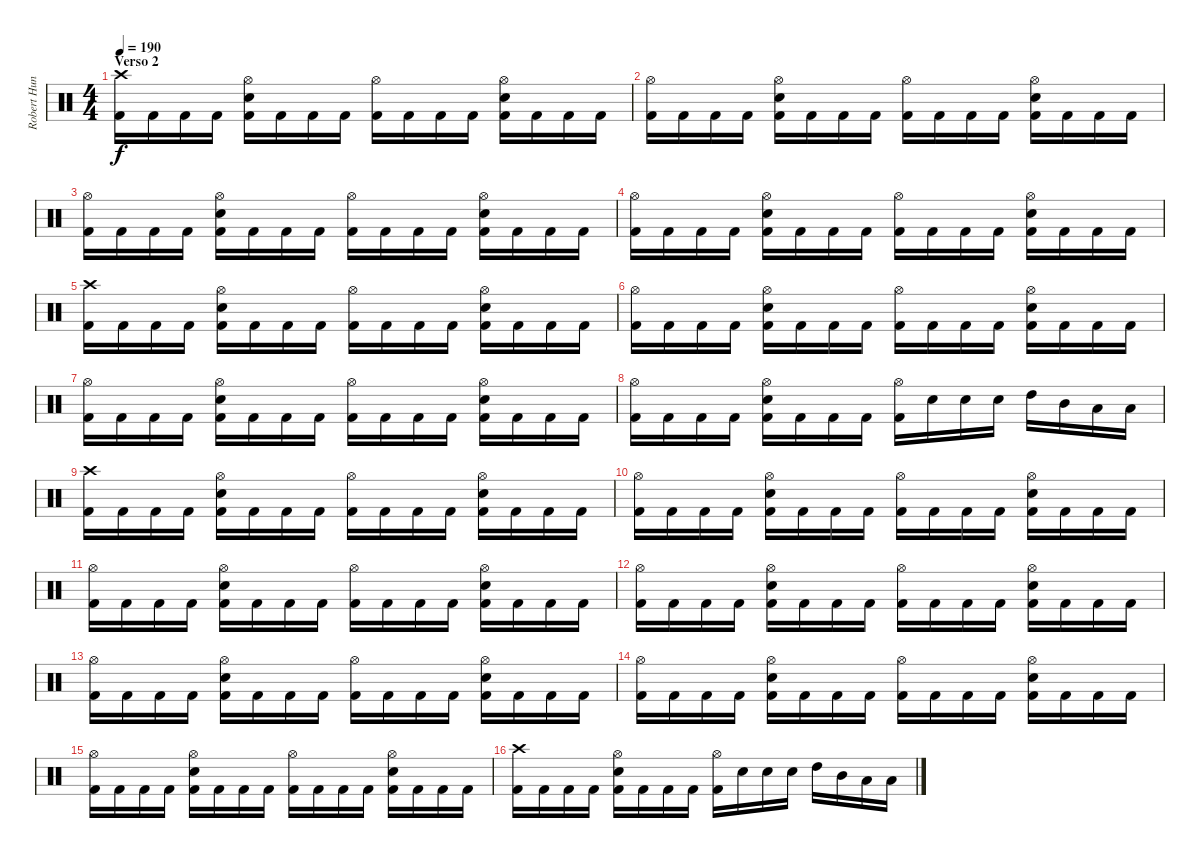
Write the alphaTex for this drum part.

\track ("Robert Hunecke" "Robert Hun") {instrument percussion}
\staff {score}
\articulation defaults
\ts (4 4)
\section ("" "Verso 2")
\tempo 190
\clef neutral
\ks c
("Kick (hit) 2" "Crash high (hit)").16{dy f} "Kick (hit) 2".16 "Kick (hit) 2".16 "Kick (hit) 2".16 ("Kick (hit) 2" "Electric Snare (hit)" "Hi-Hat (open)").16 "Kick (hit) 2".16 "Kick (hit) 2".16 "Kick (hit) 2".16 ("Kick (hit) 2" "Hi-Hat (open)").16 "Kick (hit) 2".16 "Kick (hit) 2".16 "Kick (hit) 2".16 ("Kick (hit) 2" "Electric Snare (hit)" "Hi-Hat (open)").16 "Kick (hit) 2".16 "Kick (hit) 2".16 "Kick (hit) 2".16 |
("Kick (hit) 2" "Hi-Hat (open)").16 "Kick (hit) 2".16 "Kick (hit) 2".16 "Kick (hit) 2".16 ("Kick (hit) 2" "Electric Snare (hit)" "Hi-Hat (open)").16 "Kick (hit) 2".16 "Kick (hit) 2".16 "Kick (hit) 2".16 ("Kick (hit) 2" "Hi-Hat (open)").16 "Kick (hit) 2".16 "Kick (hit) 2".16 "Kick (hit) 2".16 ("Kick (hit) 2" "Electric Snare (hit)" "Hi-Hat (open)").16 "Kick (hit) 2".16 "Kick (hit) 2".16 "Kick (hit) 2".16 |
("Kick (hit) 2" "Hi-Hat (open)").16 "Kick (hit) 2".16 "Kick (hit) 2".16 "Kick (hit) 2".16 ("Kick (hit) 2" "Electric Snare (hit)" "Hi-Hat (open)").16 "Kick (hit) 2".16 "Kick (hit) 2".16 "Kick (hit) 2".16 ("Kick (hit) 2" "Hi-Hat (open)").16 "Kick (hit) 2".16 "Kick (hit) 2".16 "Kick (hit) 2".16 ("Kick (hit) 2" "Electric Snare (hit)" "Hi-Hat (open)").16 "Kick (hit) 2".16 "Kick (hit) 2".16 "Kick (hit) 2".16 |
("Kick (hit) 2" "Hi-Hat (open)").16 "Kick (hit) 2".16 "Kick (hit) 2".16 "Kick (hit) 2".16 ("Kick (hit) 2" "Electric Snare (hit)" "Hi-Hat (open)").16 "Kick (hit) 2".16 "Kick (hit) 2".16 "Kick (hit) 2".16 ("Kick (hit) 2" "Hi-Hat (open)").16 "Kick (hit) 2".16 "Kick (hit) 2".16 "Kick (hit) 2".16 ("Kick (hit) 2" "Electric Snare (hit)" "Hi-Hat (open)").16 "Kick (hit) 2".16 "Kick (hit) 2".16 "Kick (hit) 2".16 |
("Kick (hit) 2" "Crash high (hit)").16 "Kick (hit) 2".16 "Kick (hit) 2".16 "Kick (hit) 2".16 ("Kick (hit) 2" "Electric Snare (hit)" "Hi-Hat (open)").16 "Kick (hit) 2".16 "Kick (hit) 2".16 "Kick (hit) 2".16 ("Kick (hit) 2" "Hi-Hat (open)").16 "Kick (hit) 2".16 "Kick (hit) 2".16 "Kick (hit) 2".16 ("Kick (hit) 2" "Electric Snare (hit)" "Hi-Hat (open)").16 "Kick (hit) 2".16 "Kick (hit) 2".16 "Kick (hit) 2".16 |
("Kick (hit) 2" "Hi-Hat (open)").16 "Kick (hit) 2".16 "Kick (hit) 2".16 "Kick (hit) 2".16 ("Kick (hit) 2" "Electric Snare (hit)" "Hi-Hat (open)").16 "Kick (hit) 2".16 "Kick (hit) 2".16 "Kick (hit) 2".16 ("Kick (hit) 2" "Hi-Hat (open)").16 "Kick (hit) 2".16 "Kick (hit) 2".16 "Kick (hit) 2".16 ("Kick (hit) 2" "Electric Snare (hit)" "Hi-Hat (open)").16 "Kick (hit) 2".16 "Kick (hit) 2".16 "Kick (hit) 2".16 |
("Kick (hit) 2" "Hi-Hat (open)").16 "Kick (hit) 2".16 "Kick (hit) 2".16 "Kick (hit) 2".16 ("Kick (hit) 2" "Electric Snare (hit)" "Hi-Hat (open)").16 "Kick (hit) 2".16 "Kick (hit) 2".16 "Kick (hit) 2".16 ("Kick (hit) 2" "Hi-Hat (open)").16 "Kick (hit) 2".16 "Kick (hit) 2".16 "Kick (hit) 2".16 ("Kick (hit) 2" "Electric Snare (hit)" "Hi-Hat (open)").16 "Kick (hit) 2".16 "Kick (hit) 2".16 "Kick (hit) 2".16 |
("Kick (hit) 2" "Hi-Hat (open)").16 "Kick (hit) 2".16 "Kick (hit) 2".16 "Kick (hit) 2".16 ("Kick (hit) 2" "Electric Snare (hit)" "Hi-Hat (open)").16 "Kick (hit) 2".16 "Kick (hit) 2".16 "Kick (hit) 2".16 ("Kick (hit) 2" "Hi-Hat (open)").16 "Electric Snare (hit)".16 "Electric Snare (hit)".16 "Electric Snare (hit)".16 "High Tom (hit)".16 "Mid Tom (hit)".16 "Low Tom (hit)".16 "Low Tom (hit)".16 |
("Kick (hit) 2" "Crash high (hit)").16 "Kick (hit) 2".16 "Kick (hit) 2".16 "Kick (hit) 2".16 ("Kick (hit) 2" "Electric Snare (hit)" "Hi-Hat (open)").16 "Kick (hit) 2".16 "Kick (hit) 2".16 "Kick (hit) 2".16 ("Kick (hit) 2" "Hi-Hat (open)").16 "Kick (hit) 2".16 "Kick (hit) 2".16 "Kick (hit) 2".16 ("Kick (hit) 2" "Electric Snare (hit)" "Hi-Hat (open)").16 "Kick (hit) 2".16 "Kick (hit) 2".16 "Kick (hit) 2".16 |
("Kick (hit) 2" "Hi-Hat (open)").16 "Kick (hit) 2".16 "Kick (hit) 2".16 "Kick (hit) 2".16 ("Kick (hit) 2" "Electric Snare (hit)" "Hi-Hat (open)").16 "Kick (hit) 2".16 "Kick (hit) 2".16 "Kick (hit) 2".16 ("Kick (hit) 2" "Hi-Hat (open)").16 "Kick (hit) 2".16 "Kick (hit) 2".16 "Kick (hit) 2".16 ("Kick (hit) 2" "Electric Snare (hit)" "Hi-Hat (open)").16 "Kick (hit) 2".16 "Kick (hit) 2".16 "Kick (hit) 2".16 |
("Kick (hit) 2" "Hi-Hat (open)").16 "Kick (hit) 2".16 "Kick (hit) 2".16 "Kick (hit) 2".16 ("Kick (hit) 2" "Electric Snare (hit)" "Hi-Hat (open)").16 "Kick (hit) 2".16 "Kick (hit) 2".16 "Kick (hit) 2".16 ("Kick (hit) 2" "Hi-Hat (open)").16 "Kick (hit) 2".16 "Kick (hit) 2".16 "Kick (hit) 2".16 ("Kick (hit) 2" "Electric Snare (hit)" "Hi-Hat (open)").16 "Kick (hit) 2".16 "Kick (hit) 2".16 "Kick (hit) 2".16 |
("Kick (hit) 2" "Hi-Hat (open)").16 "Kick (hit) 2".16 "Kick (hit) 2".16 "Kick (hit) 2".16 ("Kick (hit) 2" "Electric Snare (hit)" "Hi-Hat (open)").16 "Kick (hit) 2".16 "Kick (hit) 2".16 "Kick (hit) 2".16 ("Kick (hit) 2" "Hi-Hat (open)").16 "Kick (hit) 2".16 "Kick (hit) 2".16 "Kick (hit) 2".16 ("Kick (hit) 2" "Electric Snare (hit)" "Hi-Hat (open)").16 "Kick (hit) 2".16 "Kick (hit) 2".16 "Kick (hit) 2".16 |
("Kick (hit) 2" "Hi-Hat (open)").16 "Kick (hit) 2".16 "Kick (hit) 2".16 "Kick (hit) 2".16 ("Kick (hit) 2" "Electric Snare (hit)" "Hi-Hat (open)").16 "Kick (hit) 2".16 "Kick (hit) 2".16 "Kick (hit) 2".16 ("Kick (hit) 2" "Hi-Hat (open)").16 "Kick (hit) 2".16 "Kick (hit) 2".16 "Kick (hit) 2".16 ("Kick (hit) 2" "Electric Snare (hit)" "Hi-Hat (open)").16 "Kick (hit) 2".16 "Kick (hit) 2".16 "Kick (hit) 2".16 |
("Kick (hit) 2" "Hi-Hat (open)").16 "Kick (hit) 2".16 "Kick (hit) 2".16 "Kick (hit) 2".16 ("Kick (hit) 2" "Electric Snare (hit)" "Hi-Hat (open)").16 "Kick (hit) 2".16 "Kick (hit) 2".16 "Kick (hit) 2".16 ("Kick (hit) 2" "Hi-Hat (open)").16 "Kick (hit) 2".16 "Kick (hit) 2".16 "Kick (hit) 2".16 ("Kick (hit) 2" "Electric Snare (hit)" "Hi-Hat (open)").16 "Kick (hit) 2".16 "Kick (hit) 2".16 "Kick (hit) 2".16 |
("Kick (hit) 2" "Hi-Hat (open)").16 "Kick (hit) 2".16 "Kick (hit) 2".16 "Kick (hit) 2".16 ("Kick (hit) 2" "Electric Snare (hit)" "Hi-Hat (open)").16 "Kick (hit) 2".16 "Kick (hit) 2".16 "Kick (hit) 2".16 ("Kick (hit) 2" "Hi-Hat (open)").16 "Kick (hit) 2".16 "Kick (hit) 2".16 "Kick (hit) 2".16 ("Kick (hit) 2" "Electric Snare (hit)" "Hi-Hat (open)").16 "Kick (hit) 2".16 "Kick (hit) 2".16 "Kick (hit) 2".16 |
("Kick (hit) 2" "Crash high (hit)").16 "Kick (hit) 2".16 "Kick (hit) 2".16 "Kick (hit) 2".16 ("Kick (hit) 2" "Electric Snare (hit)" "Hi-Hat (open)").16 "Kick (hit) 2".16 "Kick (hit) 2".16 "Kick (hit) 2".16 ("Kick (hit) 2" "Hi-Hat (open)").16 "Electric Snare (hit)".16 "Electric Snare (hit)".16 "Electric Snare (hit)".16 "High Tom (hit)".16 "Mid Tom (hit)".16 "Low Tom (hit)".16 "Low Tom (hit)".16
